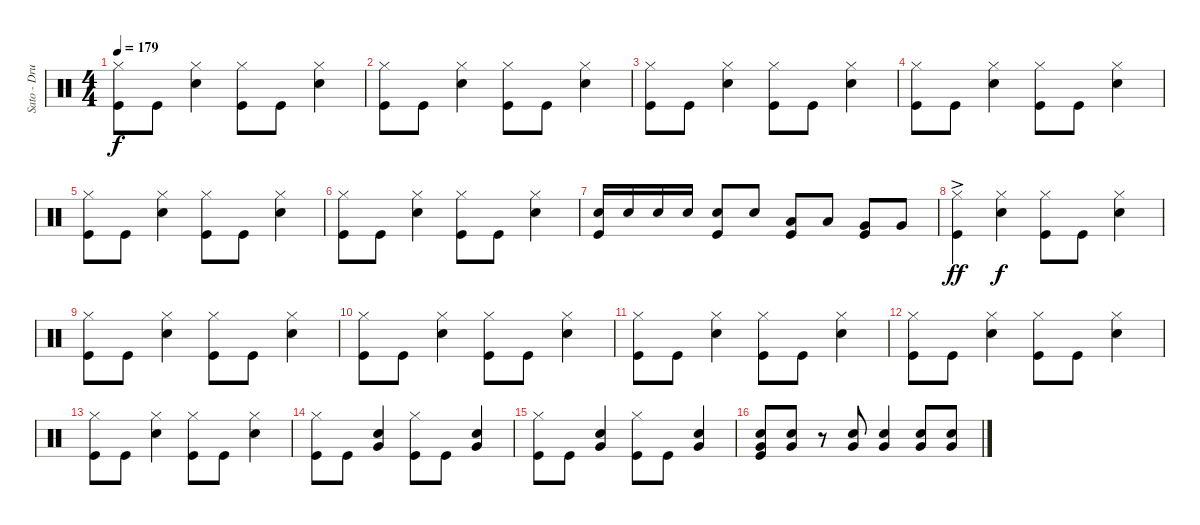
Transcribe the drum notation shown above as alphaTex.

\track ("Sato - Drums" "Sato - Dru") {instrument percussion}
\staff {score}
\articulation defaults
\ts (4 4)
\tempo 179
\clef neutral
\ks c
("Hi-Hat (closed)" "Kick (hit)").8{dy f} "Kick (hit)".8 ("Hi-Hat (closed)" "Electric Snare (hit)").4 ("Hi-Hat (closed)" "Kick (hit)").8 "Kick (hit)".8 ("Hi-Hat (closed)" "Electric Snare (hit)").4 |
("Hi-Hat (closed)" "Kick (hit)").8 "Kick (hit)".8 ("Hi-Hat (closed)" "Electric Snare (hit)").4 ("Hi-Hat (closed)" "Kick (hit)").8 "Kick (hit)".8 ("Hi-Hat (closed)" "Electric Snare (hit)").4 |
("Hi-Hat (closed)" "Kick (hit)").8 "Kick (hit)".8 ("Hi-Hat (closed)" "Electric Snare (hit)").4 ("Hi-Hat (closed)" "Kick (hit)").8 "Kick (hit)".8 ("Hi-Hat (closed)" "Electric Snare (hit)").4 |
("Hi-Hat (closed)" "Kick (hit)").8 "Kick (hit)".8 ("Hi-Hat (closed)" "Electric Snare (hit)").4 ("Hi-Hat (closed)" "Kick (hit)").8 "Kick (hit)".8 ("Hi-Hat (closed)" "Electric Snare (hit)").4 |
("Hi-Hat (closed)" "Kick (hit)").8 "Kick (hit)".8 ("Hi-Hat (closed)" "Electric Snare (hit)").4 ("Hi-Hat (closed)" "Kick (hit)").8 "Kick (hit)".8 ("Hi-Hat (closed)" "Electric Snare (hit)").4 |
("Hi-Hat (closed)" "Kick (hit)").8 "Kick (hit)".8 ("Hi-Hat (closed)" "Electric Snare (hit)").4 ("Hi-Hat (closed)" "Kick (hit)").8 "Kick (hit)".8 ("Hi-Hat (closed)" "Electric Snare (hit)").4 |
("Electric Snare (hit)" "Kick (hit)").16 "Electric Snare (hit)".16 "Electric Snare (hit)".16 "Electric Snare (hit)".16 ("Electric Snare (hit)" "Kick (hit)").8 "Electric Snare (hit)".8 ("Low Tom (hit)" "Kick (hit)").8 "Low Tom (hit)".8 ("Very Low Tom (hit)" "Kick (hit)").8 "Very Low Tom (hit)".8 |
("Hi-Hat (closed)"{ac} "Kick (hit)"{ac}).4{dy ff} ("Hi-Hat (closed)" "Electric Snare (hit)").4{dy f} ("Hi-Hat (closed)" "Kick (hit)").8 "Kick (hit)".8 ("Hi-Hat (closed)" "Electric Snare (hit)").4 |
("Hi-Hat (closed)" "Kick (hit)").8 "Kick (hit)".8 ("Hi-Hat (closed)" "Electric Snare (hit)").4 ("Hi-Hat (closed)" "Kick (hit)").8 "Kick (hit)".8 ("Hi-Hat (closed)" "Electric Snare (hit)").4 |
("Hi-Hat (closed)" "Kick (hit)").8 "Kick (hit)".8 ("Hi-Hat (closed)" "Electric Snare (hit)").4 ("Hi-Hat (closed)" "Kick (hit)").8 "Kick (hit)".8 ("Hi-Hat (closed)" "Electric Snare (hit)").4 |
("Hi-Hat (closed)" "Kick (hit)").8 "Kick (hit)".8 ("Hi-Hat (closed)" "Electric Snare (hit)").4 ("Hi-Hat (closed)" "Kick (hit)").8 "Kick (hit)".8 ("Hi-Hat (closed)" "Electric Snare (hit)").4 |
("Hi-Hat (closed)" "Kick (hit)").8 "Kick (hit)".8 ("Hi-Hat (closed)" "Electric Snare (hit)").4 ("Hi-Hat (closed)" "Kick (hit)").8 "Kick (hit)".8 ("Hi-Hat (closed)" "Electric Snare (hit)").4 |
("Hi-Hat (closed)" "Kick (hit)").8 "Kick (hit)".8 ("Hi-Hat (closed)" "Electric Snare (hit)").4 ("Hi-Hat (closed)" "Kick (hit)").8 "Kick (hit)".8 ("Hi-Hat (closed)" "Electric Snare (hit)").4 |
("Hi-Hat (closed)" "Kick (hit)").8 "Kick (hit)".8 ("Electric Snare (hit)" "Very Low Tom (hit)").4 ("Hi-Hat (closed)" "Kick (hit)").8 "Kick (hit)".8 ("Electric Snare (hit)" "Very Low Tom (hit)").4 |
("Hi-Hat (closed)" "Kick (hit)").8 "Kick (hit)".8 ("Electric Snare (hit)" "Very Low Tom (hit)").4 ("Hi-Hat (closed)" "Kick (hit)").8 "Kick (hit)".8 ("Electric Snare (hit)" "Very Low Tom (hit)").4 |
("Electric Snare (hit)" "Very Low Tom (hit)" "Kick (hit)").8 ("Electric Snare (hit)" "Very Low Tom (hit)").8 r.8 ("Electric Snare (hit)" "Very Low Tom (hit)").8 ("Electric Snare (hit)" "Very Low Tom (hit)").4 ("Electric Snare (hit)" "Very Low Tom (hit)").8 ("Electric Snare (hit)" "Very Low Tom (hit)").8
